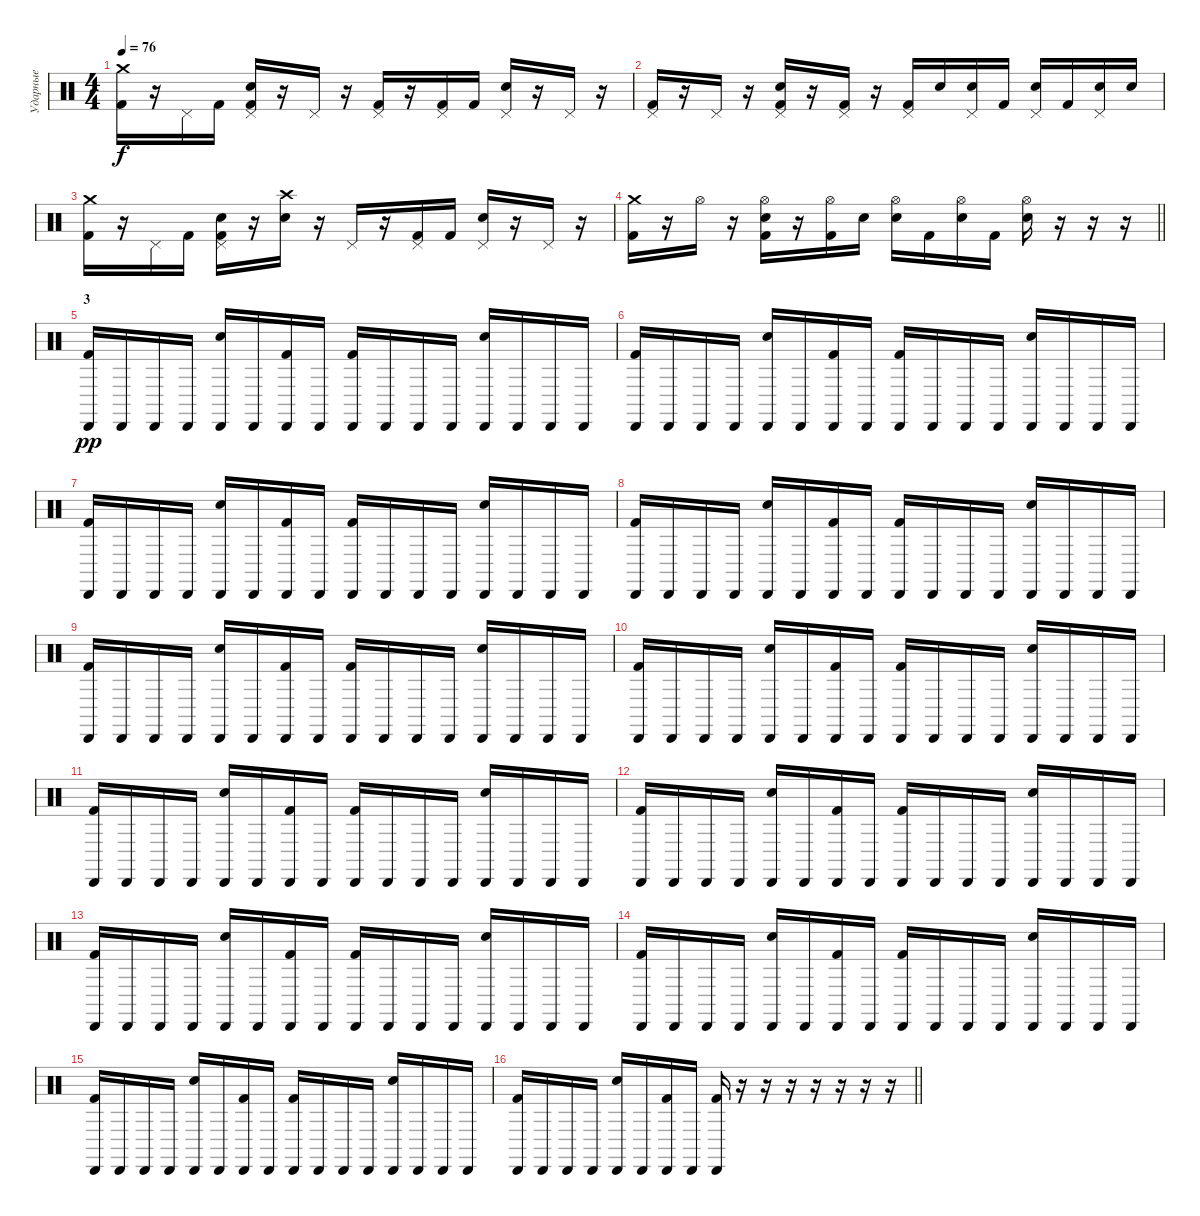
\track ("Ударные" "Ударные") {instrument percussion}
\staff {score}
\articulation defaults
\ts (4 4)
\tempo 76
\clef neutral
\ks c
("Crash medium (hit)" "Kick (hit) 2").16{dy f} r.16 "Pedal Hi-Hat (hit)".16 "Kick (hit) 2".16 ("Pedal Hi-Hat (hit)" "Snare (hit) 2" "Kick (hit) 2").16 r.16 "Pedal Hi-Hat (hit)".16 r.16 ("Pedal Hi-Hat (hit)" "Kick (hit) 2").16 r.16 ("Pedal Hi-Hat (hit)" "Kick (hit) 2").16 "Kick (hit) 2".16 ("Pedal Hi-Hat (hit)" "Snare (hit) 2").16 r.16 "Pedal Hi-Hat (hit)".16 r.16 |
("Pedal Hi-Hat (hit)" "Kick (hit) 2").16 r.16 "Pedal Hi-Hat (hit)".16 r.16 ("Pedal Hi-Hat (hit)" "Snare (hit) 2" "Kick (hit) 2").16 r.16 ("Pedal Hi-Hat (hit)" "Kick (hit) 2").16 r.16 ("Pedal Hi-Hat (hit)" "Kick (hit) 2").16 "Snare (hit) 2".16 ("Pedal Hi-Hat (hit)" "Snare (hit) 2").16 "Kick (hit) 2".16 ("Pedal Hi-Hat (hit)" "Snare (hit) 2").16 "Kick (hit) 2".16 ("Pedal Hi-Hat (hit)" "Snare (hit) 2").16 "Snare (hit) 2".16 |
("Crash medium (hit)" "Kick (hit) 2").16 r.16 "Pedal Hi-Hat (hit)".16 "Kick (hit) 2".16 ("Pedal Hi-Hat (hit)" "Snare (hit) 2" "Kick (hit) 2").16 r.16 ("Crash high (hit)" "Snare (hit) 2").16 r.16 "Pedal Hi-Hat (hit)".16 r.16 ("Pedal Hi-Hat (hit)" "Kick (hit) 2").16 "Kick (hit) 2".16 ("Pedal Hi-Hat (hit)" "Snare (hit) 2").16 r.16 "Pedal Hi-Hat (hit)".16 r.16 |
\barLineRight lightlight
("Crash medium (hit)" "Kick (hit) 2").16 r.16 "Hi-Hat (open)".16 r.16 ("Hi-Hat (open)" "Snare (hit) 2" "Kick (hit) 2").16 r.16 ("Hi-Hat (open)" "Kick (hit) 2").16 "Snare (hit) 2".16 ("Hi-Hat (open)" "Snare (hit) 2").16 "Kick (hit) 2".16 ("Hi-Hat (open)" "Snare (hit) 2").16 "Kick (hit) 2".16 ("Hi-Hat (open)" "Snare (hit) 2").16 r.16 r.16 r.16 |
\section ("" "3")
("Cabasa (hit)" "Kick (hit) 2").16{dy pp} "Cabasa (hit)".16 "Cabasa (hit)".16 "Cabasa (hit)".16 ("Cabasa (hit)" "Snare (hit) 2").16 "Cabasa (hit)".16 ("Cabasa (hit)" "Kick (hit) 2").16 "Cabasa (hit)".16 ("Cabasa (hit)" "Kick (hit) 2").16 "Cabasa (hit)".16 "Cabasa (hit)".16 "Cabasa (hit)".16 ("Cabasa (hit)" "Snare (hit) 2").16 "Cabasa (hit)".16 "Cabasa (hit)".16 "Cabasa (hit)".16 |
("Cabasa (hit)" "Kick (hit) 2").16 "Cabasa (hit)".16 "Cabasa (hit)".16 "Cabasa (hit)".16 ("Cabasa (hit)" "Snare (hit) 2").16 "Cabasa (hit)".16 ("Cabasa (hit)" "Kick (hit) 2").16 "Cabasa (hit)".16 ("Cabasa (hit)" "Kick (hit) 2").16 "Cabasa (hit)".16 "Cabasa (hit)".16 "Cabasa (hit)".16 ("Cabasa (hit)" "Snare (hit) 2").16 "Cabasa (hit)".16 "Cabasa (hit)".16 "Cabasa (hit)".16 |
("Cabasa (hit)" "Kick (hit) 2").16 "Cabasa (hit)".16 "Cabasa (hit)".16 "Cabasa (hit)".16 ("Cabasa (hit)" "Snare (hit) 2").16 "Cabasa (hit)".16 ("Cabasa (hit)" "Kick (hit) 2").16 "Cabasa (hit)".16 ("Cabasa (hit)" "Kick (hit) 2").16 "Cabasa (hit)".16 "Cabasa (hit)".16 "Cabasa (hit)".16 ("Cabasa (hit)" "Snare (hit) 2").16 "Cabasa (hit)".16 "Cabasa (hit)".16 "Cabasa (hit)".16 |
("Cabasa (hit)" "Kick (hit) 2").16 "Cabasa (hit)".16 "Cabasa (hit)".16 "Cabasa (hit)".16 ("Cabasa (hit)" "Snare (hit) 2").16 "Cabasa (hit)".16 ("Cabasa (hit)" "Kick (hit) 2").16 "Cabasa (hit)".16 ("Cabasa (hit)" "Kick (hit) 2").16 "Cabasa (hit)".16 "Cabasa (hit)".16 "Cabasa (hit)".16 ("Cabasa (hit)" "Snare (hit) 2").16 "Cabasa (hit)".16 "Cabasa (hit)".16 "Cabasa (hit)".16 |
("Cabasa (hit)" "Kick (hit) 2").16 "Cabasa (hit)".16 "Cabasa (hit)".16 "Cabasa (hit)".16 ("Cabasa (hit)" "Snare (hit) 2").16 "Cabasa (hit)".16 ("Cabasa (hit)" "Kick (hit) 2").16 "Cabasa (hit)".16 ("Cabasa (hit)" "Kick (hit) 2").16 "Cabasa (hit)".16 "Cabasa (hit)".16 "Cabasa (hit)".16 ("Cabasa (hit)" "Snare (hit) 2").16 "Cabasa (hit)".16 "Cabasa (hit)".16 "Cabasa (hit)".16 |
("Cabasa (hit)" "Kick (hit) 2").16 "Cabasa (hit)".16 "Cabasa (hit)".16 "Cabasa (hit)".16 ("Cabasa (hit)" "Snare (hit) 2").16 "Cabasa (hit)".16 ("Cabasa (hit)" "Kick (hit) 2").16 "Cabasa (hit)".16 ("Cabasa (hit)" "Kick (hit) 2").16 "Cabasa (hit)".16 "Cabasa (hit)".16 "Cabasa (hit)".16 ("Cabasa (hit)" "Snare (hit) 2").16 "Cabasa (hit)".16 "Cabasa (hit)".16 "Cabasa (hit)".16 |
("Cabasa (hit)" "Kick (hit) 2").16 "Cabasa (hit)".16 "Cabasa (hit)".16 "Cabasa (hit)".16 ("Cabasa (hit)" "Snare (hit) 2").16 "Cabasa (hit)".16 ("Cabasa (hit)" "Kick (hit) 2").16 "Cabasa (hit)".16 ("Cabasa (hit)" "Kick (hit) 2").16 "Cabasa (hit)".16 "Cabasa (hit)".16 "Cabasa (hit)".16 ("Cabasa (hit)" "Snare (hit) 2").16 "Cabasa (hit)".16 "Cabasa (hit)".16 "Cabasa (hit)".16 |
("Cabasa (hit)" "Kick (hit) 2").16 "Cabasa (hit)".16 "Cabasa (hit)".16 "Cabasa (hit)".16 ("Cabasa (hit)" "Snare (hit) 2").16 "Cabasa (hit)".16 ("Cabasa (hit)" "Kick (hit) 2").16 "Cabasa (hit)".16 ("Cabasa (hit)" "Kick (hit) 2").16 "Cabasa (hit)".16 "Cabasa (hit)".16 "Cabasa (hit)".16 ("Cabasa (hit)" "Snare (hit) 2").16 "Cabasa (hit)".16 "Cabasa (hit)".16 "Cabasa (hit)".16 |
("Cabasa (hit)" "Kick (hit) 2").16 "Cabasa (hit)".16 "Cabasa (hit)".16 "Cabasa (hit)".16 ("Cabasa (hit)" "Snare (hit) 2").16 "Cabasa (hit)".16 ("Cabasa (hit)" "Kick (hit) 2").16 "Cabasa (hit)".16 ("Cabasa (hit)" "Kick (hit) 2").16 "Cabasa (hit)".16 "Cabasa (hit)".16 "Cabasa (hit)".16 ("Cabasa (hit)" "Snare (hit) 2").16 "Cabasa (hit)".16 "Cabasa (hit)".16 "Cabasa (hit)".16 |
("Cabasa (hit)" "Kick (hit) 2").16 "Cabasa (hit)".16 "Cabasa (hit)".16 "Cabasa (hit)".16 ("Cabasa (hit)" "Snare (hit) 2").16 "Cabasa (hit)".16 ("Cabasa (hit)" "Kick (hit) 2").16 "Cabasa (hit)".16 ("Cabasa (hit)" "Kick (hit) 2").16 "Cabasa (hit)".16 "Cabasa (hit)".16 "Cabasa (hit)".16 ("Cabasa (hit)" "Snare (hit) 2").16 "Cabasa (hit)".16 "Cabasa (hit)".16 "Cabasa (hit)".16 |
("Cabasa (hit)" "Kick (hit) 2").16 "Cabasa (hit)".16 "Cabasa (hit)".16 "Cabasa (hit)".16 ("Cabasa (hit)" "Snare (hit) 2").16 "Cabasa (hit)".16 ("Cabasa (hit)" "Kick (hit) 2").16 "Cabasa (hit)".16 ("Cabasa (hit)" "Kick (hit) 2").16 "Cabasa (hit)".16 "Cabasa (hit)".16 "Cabasa (hit)".16 ("Cabasa (hit)" "Snare (hit) 2").16 "Cabasa (hit)".16 "Cabasa (hit)".16 "Cabasa (hit)".16 |
\barLineRight lightlight
("Cabasa (hit)" "Kick (hit) 2").16 "Cabasa (hit)".16 "Cabasa (hit)".16 "Cabasa (hit)".16 ("Cabasa (hit)" "Snare (hit) 2").16 "Cabasa (hit)".16 ("Cabasa (hit)" "Kick (hit) 2").16 "Cabasa (hit)".16 ("Cabasa (hit)" "Kick (hit) 2").16 r.16 r.16 r.16 r.16 r.16 r.16 r.16
